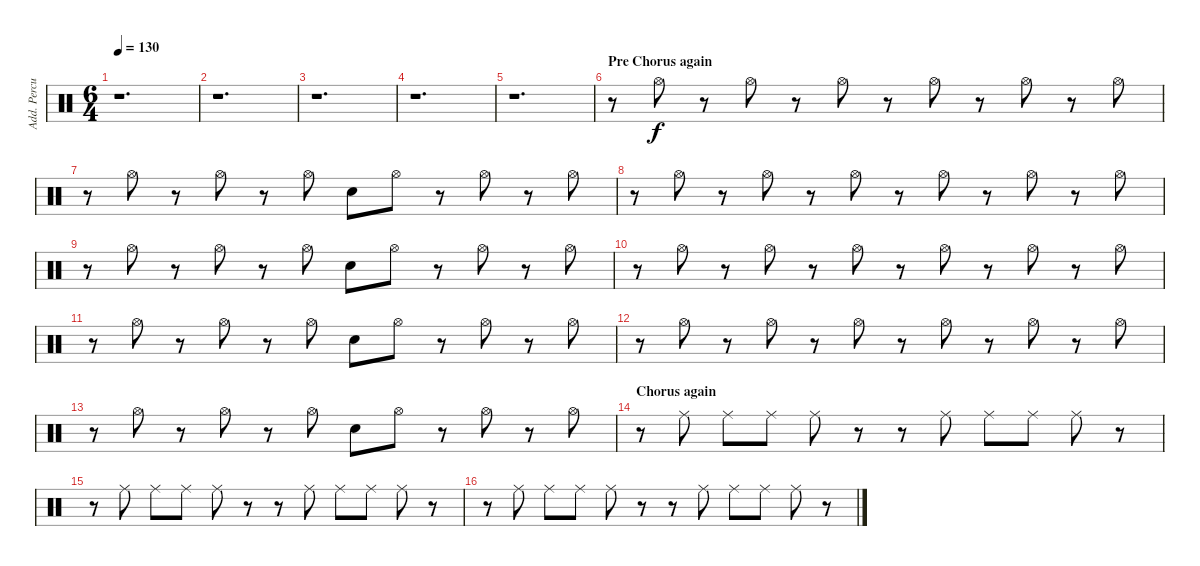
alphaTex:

\track ("Add. Percussion" "Add. Percu") {instrument percussion}
\staff {score}
\articulation defaults
\ts (6 4)
\tempo 130
\clef neutral
\ks c
r.1{d dy p} |
r.1{d} |
r.1{d} |
r.1{d} |
r.1{d} |
\section ("" "Pre Chorus again")
r.8 "Hi-Hat (open)".8{dy f} r.8 "Hi-Hat (open)".8 r.8 "Hi-Hat (open)".8 r.8 "Hi-Hat (open)".8 r.8 "Hi-Hat (open)".8 r.8 "Hi-Hat (open)".8 |
r.8 "Hi-Hat (open)".8 r.8 "Hi-Hat (open)".8 r.8 "Hi-Hat (open)".8 "Electric Snare (hit)".8 "Hi-Hat (open)".8 r.8 "Hi-Hat (open)".8 r.8 "Hi-Hat (open)".8 |
r.8 "Hi-Hat (open)".8 r.8 "Hi-Hat (open)".8 r.8 "Hi-Hat (open)".8 r.8 "Hi-Hat (open)".8 r.8 "Hi-Hat (open)".8 r.8 "Hi-Hat (open)".8 |
r.8 "Hi-Hat (open)".8 r.8 "Hi-Hat (open)".8 r.8 "Hi-Hat (open)".8 "Electric Snare (hit)".8 "Hi-Hat (open)".8 r.8 "Hi-Hat (open)".8 r.8 "Hi-Hat (open)".8 |
r.8 "Hi-Hat (open)".8 r.8 "Hi-Hat (open)".8 r.8 "Hi-Hat (open)".8 r.8 "Hi-Hat (open)".8 r.8 "Hi-Hat (open)".8 r.8 "Hi-Hat (open)".8 |
r.8 "Hi-Hat (open)".8 r.8 "Hi-Hat (open)".8 r.8 "Hi-Hat (open)".8 "Electric Snare (hit)".8 "Hi-Hat (open)".8 r.8 "Hi-Hat (open)".8 r.8 "Hi-Hat (open)".8 |
r.8 "Hi-Hat (open)".8 r.8 "Hi-Hat (open)".8 r.8 "Hi-Hat (open)".8 r.8 "Hi-Hat (open)".8 r.8 "Hi-Hat (open)".8 r.8 "Hi-Hat (open)".8 |
r.8 "Hi-Hat (open)".8 r.8 "Hi-Hat (open)".8 r.8 "Hi-Hat (open)".8 "Electric Snare (hit)".8 "Hi-Hat (open)".8 r.8 "Hi-Hat (open)".8 r.8 "Hi-Hat (open)".8 |
\section ("" "Chorus again")
r.8 "Ride (middle)".8 "Ride (middle)".8 "Ride (middle)".8 "Ride (middle)".8 r.8 r.8 "Ride (middle)".8 "Ride (middle)".8 "Ride (middle)".8 "Ride (middle)".8 r.8 |
r.8 "Ride (middle)".8 "Ride (middle)".8 "Ride (middle)".8 "Ride (middle)".8 r.8 r.8 "Ride (middle)".8 "Ride (middle)".8 "Ride (middle)".8 "Ride (middle)".8 r.8 |
r.8 "Ride (middle)".8 "Ride (middle)".8 "Ride (middle)".8 "Ride (middle)".8 r.8 r.8 "Ride (middle)".8 "Ride (middle)".8 "Ride (middle)".8 "Ride (middle)".8 r.8
